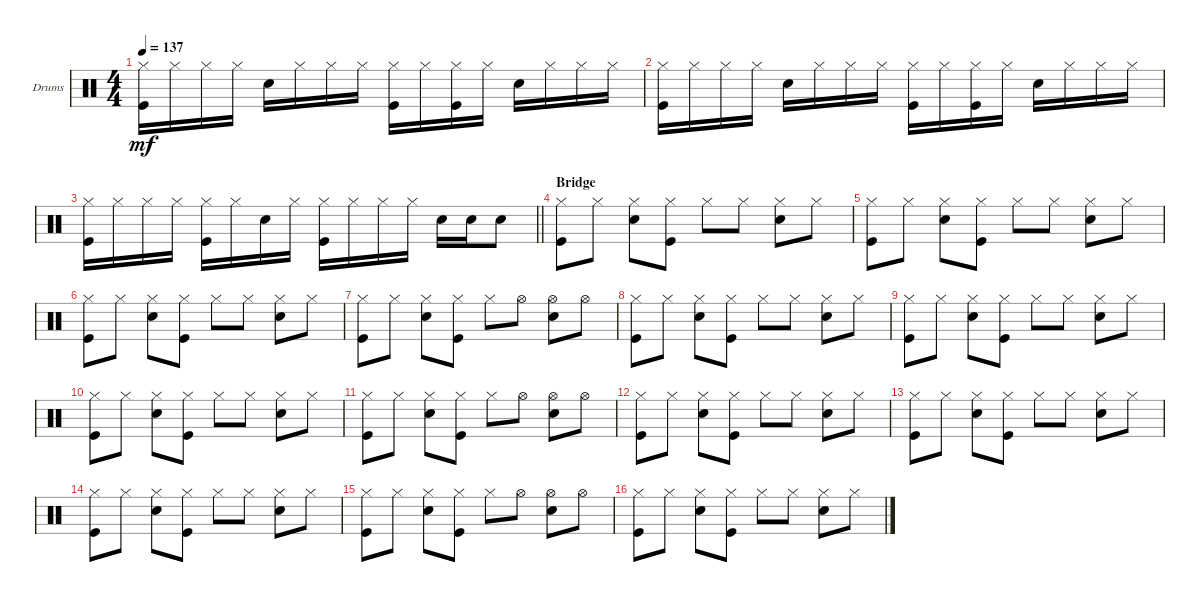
\bracketExtendMode groupsimilarinstruments
\firstSystemTrackNameOrientation horizontal
\otherSystemsTrackNameOrientation horizontal
\track ("Drumkit" "Drums") {instrument percussion}
\staff {score}
\articulation defaults
\ts (4 4)
\tempo 137
\clef neutral
\scale
0.333333
\ks c
("Hi-Hat (closed)" "Kick (hit)").16{dy mf} "Hi-Hat (closed)".16 "Hi-Hat (closed)".16 "Hi-Hat (closed)".16 "Snare (hit) 2".16 "Hi-Hat (closed)".16 "Hi-Hat (closed)".16 "Hi-Hat (closed)".16 ("Hi-Hat (closed)" "Kick (hit)").16 "Hi-Hat (closed)".16 ("Hi-Hat (closed)" "Kick (hit)").16 "Hi-Hat (closed)".16 "Snare (hit) 2".16 "Hi-Hat (closed)".16 "Hi-Hat (closed)".16 "Hi-Hat (closed)".16 |
\scale
0.333333 ("Hi-Hat (closed)" "Kick (hit)").16 "Hi-Hat (closed)".16 "Hi-Hat (closed)".16 "Hi-Hat (closed)".16 "Snare (hit) 2".16 "Hi-Hat (closed)".16 "Hi-Hat (closed)".16 "Hi-Hat (closed)".16 ("Hi-Hat (closed)" "Kick (hit)").16 "Hi-Hat (closed)".16 ("Hi-Hat (closed)" "Kick (hit)").16 "Hi-Hat (closed)".16 "Snare (hit) 2".16 "Hi-Hat (closed)".16 "Hi-Hat (closed)".16 "Hi-Hat (closed)".16 |
\scale
0.333333
\barLineRight lightlight
("Hi-Hat (closed)" "Kick (hit)").16 "Hi-Hat (closed)".16 "Hi-Hat (closed)".16 "Hi-Hat (closed)".16 ("Hi-Hat (closed)" "Kick (hit)").16 "Hi-Hat (closed)".16 "Snare (hit) 2".16 "Hi-Hat (closed)".16 ("Hi-Hat (closed)" "Kick (hit)").16 "Hi-Hat (closed)".16 "Hi-Hat (closed)".16 "Hi-Hat (closed)".16 "Snare (hit) 2".16 "Snare (hit) 2".16 "Snare (hit) 2".8 |
\section ("" "Bridge")
\scale
0.333333 ("Kick (hit)" "Hi-Hat (closed)").8 "Hi-Hat (closed)".8 ("Hi-Hat (closed)" "Snare (hit) 2").8 ("Hi-Hat (closed)" "Kick (hit)").8 "Hi-Hat (closed)".8 "Hi-Hat (closed)".8 ("Hi-Hat (closed)" "Snare (hit) 2").8 "Hi-Hat (closed)".8 |
\scale
0.333333 ("Kick (hit)" "Hi-Hat (closed)").8 "Hi-Hat (closed)".8 ("Hi-Hat (closed)" "Snare (hit) 2").8 ("Hi-Hat (closed)" "Kick (hit)").8 "Hi-Hat (closed)".8 "Hi-Hat (closed)".8 ("Hi-Hat (closed)" "Snare (hit) 2").8 "Hi-Hat (closed)".8 |
\scale
0.333333 ("Kick (hit)" "Hi-Hat (closed)").8 "Hi-Hat (closed)".8 ("Hi-Hat (closed)" "Snare (hit) 2").8 ("Hi-Hat (closed)" "Kick (hit)").8 "Hi-Hat (closed)".8 "Hi-Hat (closed)".8 ("Hi-Hat (closed)" "Snare (hit) 2").8 "Hi-Hat (closed)".8 |
\scale
0.333333 ("Kick (hit)" "Hi-Hat (closed)").8 "Hi-Hat (closed)".8 ("Hi-Hat (closed)" "Snare (hit) 2").8 ("Hi-Hat (closed)" "Kick (hit)").8 "Hi-Hat (closed)".8 "Hi-Hat (open)".8 ("Hi-Hat (open)" "Snare (hit) 2").8 "Hi-Hat (open)".8 |
\scale
0.333333 ("Kick (hit)" "Hi-Hat (closed)").8 "Hi-Hat (closed)".8 ("Hi-Hat (closed)" "Snare (hit) 2").8 ("Hi-Hat (closed)" "Kick (hit)").8 "Hi-Hat (closed)".8 "Hi-Hat (closed)".8 ("Hi-Hat (closed)" "Snare (hit) 2").8 "Hi-Hat (closed)".8 |
\scale
0.333333 ("Kick (hit)" "Hi-Hat (closed)").8 "Hi-Hat (closed)".8 ("Hi-Hat (closed)" "Snare (hit) 2").8 ("Hi-Hat (closed)" "Kick (hit)").8 "Hi-Hat (closed)".8 "Hi-Hat (closed)".8 ("Hi-Hat (closed)" "Snare (hit) 2").8 "Hi-Hat (closed)".8 |
\scale
0.333333 ("Kick (hit)" "Hi-Hat (closed)").8 "Hi-Hat (closed)".8 ("Hi-Hat (closed)" "Snare (hit) 2").8 ("Hi-Hat (closed)" "Kick (hit)").8 "Hi-Hat (closed)".8 "Hi-Hat (closed)".8 ("Hi-Hat (closed)" "Snare (hit) 2").8 "Hi-Hat (closed)".8 |
\scale
0.333333 ("Kick (hit)" "Hi-Hat (closed)").8 "Hi-Hat (closed)".8 ("Hi-Hat (closed)" "Snare (hit) 2").8 ("Hi-Hat (closed)" "Kick (hit)").8 "Hi-Hat (closed)".8 "Hi-Hat (open)".8 ("Hi-Hat (open)" "Snare (hit) 2").8 "Hi-Hat (open)".8 |
\scale
0.333333 ("Kick (hit)" "Hi-Hat (closed)").8 "Hi-Hat (closed)".8 ("Hi-Hat (closed)" "Snare (hit) 2").8 ("Hi-Hat (closed)" "Kick (hit)").8 "Hi-Hat (closed)".8 "Hi-Hat (closed)".8 ("Hi-Hat (closed)" "Snare (hit) 2").8 "Hi-Hat (closed)".8 |
\scale
0.333333 ("Kick (hit)" "Hi-Hat (closed)").8 "Hi-Hat (closed)".8 ("Hi-Hat (closed)" "Snare (hit) 2").8 ("Hi-Hat (closed)" "Kick (hit)").8 "Hi-Hat (closed)".8 "Hi-Hat (closed)".8 ("Hi-Hat (closed)" "Snare (hit) 2").8 "Hi-Hat (closed)".8 |
\scale
0.333333 ("Kick (hit)" "Hi-Hat (closed)").8 "Hi-Hat (closed)".8 ("Hi-Hat (closed)" "Snare (hit) 2").8 ("Hi-Hat (closed)" "Kick (hit)").8 "Hi-Hat (closed)".8 "Hi-Hat (closed)".8 ("Hi-Hat (closed)" "Snare (hit) 2").8 "Hi-Hat (closed)".8 |
\scale
0.333333 ("Kick (hit)" "Hi-Hat (closed)").8 "Hi-Hat (closed)".8 ("Hi-Hat (closed)" "Snare (hit) 2").8 ("Hi-Hat (closed)" "Kick (hit)").8 "Hi-Hat (closed)".8 "Hi-Hat (open)".8 ("Hi-Hat (open)" "Snare (hit) 2").8 "Hi-Hat (open)".8 |
\scale
0.333333 ("Kick (hit)" "Hi-Hat (closed)").8 "Hi-Hat (closed)".8 ("Hi-Hat (closed)" "Snare (hit) 2").8 ("Hi-Hat (closed)" "Kick (hit)").8 "Hi-Hat (closed)".8 "Hi-Hat (closed)".8 ("Hi-Hat (closed)" "Snare (hit) 2").8 "Hi-Hat (closed)".8
